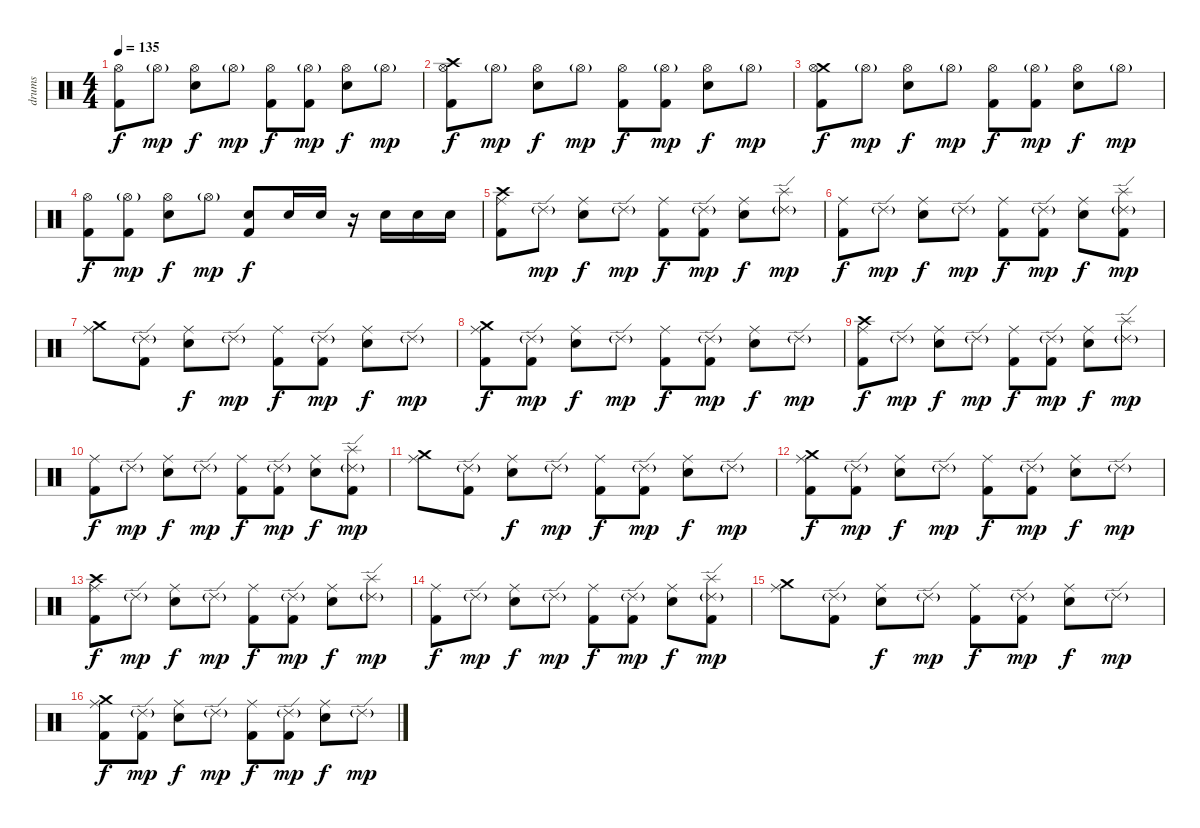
\track ("drums" "drums") {instrument percussion}
\staff {score}
\articulation defaults
\ts (4 4)
\tempo 135
\clef neutral
\ks c
("Hi-Hat (open)" "Kick (hit) 2").8{dy f} "Hi-Hat (open)"{g}.8{dy mp} ("Hi-Hat (open)" "Snare (hit) 2").8{dy f} "Hi-Hat (open)"{g}.8{dy mp} ("Hi-Hat (open)" "Kick (hit) 2").8{dy f} ("Hi-Hat (open)"{g} "Kick (hit) 2").8{dy mp} ("Hi-Hat (open)" "Snare (hit) 2").8{dy f} "Hi-Hat (open)"{g}.8{dy mp} |
("Crash high (hit)" "Hi-Hat (open)" "Kick (hit) 2").8{dy f} "Hi-Hat (open)"{g}.8{dy mp} ("Hi-Hat (open)" "Snare (hit) 2").8{dy f} "Hi-Hat (open)"{g}.8{dy mp} ("Hi-Hat (open)" "Kick (hit) 2").8{dy f} ("Hi-Hat (open)"{g} "Kick (hit) 2").8{dy mp} ("Hi-Hat (open)" "Snare (hit) 2").8{dy f} "Hi-Hat (open)"{g}.8{dy mp} |
("Crash medium (hit)" "Hi-Hat (open)" "Kick (hit) 2").8{dy f} "Hi-Hat (open)"{g}.8{dy mp} ("Hi-Hat (open)" "Snare (hit) 2").8{dy f} "Hi-Hat (open)"{g}.8{dy mp} ("Hi-Hat (open)" "Kick (hit) 2").8{dy f} ("Hi-Hat (open)"{g} "Kick (hit) 2").8{dy mp} ("Hi-Hat (open)" "Snare (hit) 2").8{dy f} "Hi-Hat (open)"{g}.8{dy mp} |
("Hi-Hat (open)" "Kick (hit) 2").8{dy f} ("Hi-Hat (open)"{g} "Kick (hit) 2").8{dy mp} ("Hi-Hat (open)" "Snare (hit) 2").8{dy f} "Hi-Hat (open)"{g}.8{dy mp} ("Snare (hit) 2" "Kick (hit) 2").8{dy f} "Snare (hit) 2".16 "Snare (hit) 2".16 r.16 "Snare (hit) 2".16 "Snare (hit) 2".16 "Snare (hit) 2".16 |
("Crash high (hit)" "Ride (middle)" "Kick (hit) 2").8 "Ride (edge) 2"{g}.8{dy mp} ("Ride (middle)" "Snare (hit) 2").8{dy f} "Ride (edge) 2"{g}.8{dy mp} ("Ride (middle)" "Kick (hit) 2").8{dy f} ("Ride (edge) 2"{g} "Kick (hit) 2").8{dy mp} ("Ride (middle)" "Snare (hit) 2").8{dy f} ("Splash (hit)" "Ride (edge) 2"{g}).8{dy mp} |
("Ride (middle)" "Kick (hit) 2").8{dy f} "Ride (edge) 2"{g}.8{dy mp} ("Ride (middle)" "Snare (hit) 2").8{dy f} "Ride (edge) 2"{g}.8{dy mp} ("Ride (middle)" "Kick (hit) 2").8{dy f} ("Ride (edge) 2"{g} "Kick (hit) 2").8{dy mp} ("Ride (middle)" "Snare (hit) 2").8{dy f} ("Splash (hit)" "Ride (edge) 2"{g} "Kick (hit) 2").8{dy mp} |
("Crash medium (hit)" "Ride (middle)").8 ("Ride (edge) 2"{g} "Kick (hit) 2").8 ("Ride (middle)" "Snare (hit) 2").8{dy f} "Ride (edge) 2"{g}.8{dy mp} ("Ride (middle)" "Kick (hit) 2").8{dy f} ("Ride (edge) 2"{g} "Kick (hit) 2").8{dy mp} ("Ride (middle)" "Snare (hit) 2").8{dy f} "Ride (edge) 2"{g}.8{dy mp} |
("Crash medium (hit)" "Ride (middle)" "Kick (hit) 2").8{dy f} ("Ride (edge) 2"{g} "Kick (hit) 2").8{dy mp} ("Ride (middle)" "Snare (hit) 2").8{dy f} "Ride (edge) 2"{g}.8{dy mp} ("Ride (middle)" "Kick (hit) 2").8{dy f} ("Ride (edge) 2"{g} "Kick (hit) 2").8{dy mp} ("Ride (middle)" "Snare (hit) 2").8{dy f} "Ride (edge) 2"{g}.8{dy mp} |
("Crash high (hit)" "Ride (middle)" "Kick (hit) 2").8{dy f} "Ride (edge) 2"{g}.8{dy mp} ("Ride (middle)" "Snare (hit) 2").8{dy f} "Ride (edge) 2"{g}.8{dy mp} ("Ride (middle)" "Kick (hit) 2").8{dy f} ("Ride (edge) 2"{g} "Kick (hit) 2").8{dy mp} ("Ride (middle)" "Snare (hit) 2").8{dy f} ("Splash (hit)" "Ride (edge) 2"{g}).8{dy mp} |
("Ride (middle)" "Kick (hit) 2").8{dy f} "Ride (edge) 2"{g}.8{dy mp} ("Ride (middle)" "Snare (hit) 2").8{dy f} "Ride (edge) 2"{g}.8{dy mp} ("Ride (middle)" "Kick (hit) 2").8{dy f} ("Ride (edge) 2"{g} "Kick (hit) 2").8{dy mp} ("Ride (middle)" "Snare (hit) 2").8{dy f} ("Splash (hit)" "Ride (edge) 2"{g} "Kick (hit) 2").8{dy mp} |
("Crash medium (hit)" "Ride (middle)").8 ("Ride (edge) 2"{g} "Kick (hit) 2").8 ("Ride (middle)" "Snare (hit) 2").8{dy f} "Ride (edge) 2"{g}.8{dy mp} ("Ride (middle)" "Kick (hit) 2").8{dy f} ("Ride (edge) 2"{g} "Kick (hit) 2").8{dy mp} ("Ride (middle)" "Snare (hit) 2").8{dy f} "Ride (edge) 2"{g}.8{dy mp} |
("Crash medium (hit)" "Ride (middle)" "Kick (hit) 2").8{dy f} ("Ride (edge) 2"{g} "Kick (hit) 2").8{dy mp} ("Ride (middle)" "Snare (hit) 2").8{dy f} "Ride (edge) 2"{g}.8{dy mp} ("Ride (middle)" "Kick (hit) 2").8{dy f} ("Ride (edge) 2"{g} "Kick (hit) 2").8{dy mp} ("Ride (middle)" "Snare (hit) 2").8{dy f} "Ride (edge) 2"{g}.8{dy mp} |
("Crash high (hit)" "Ride (middle)" "Kick (hit) 2").8{dy f} "Ride (edge) 2"{g}.8{dy mp} ("Ride (middle)" "Snare (hit) 2").8{dy f} "Ride (edge) 2"{g}.8{dy mp} ("Ride (middle)" "Kick (hit) 2").8{dy f} ("Ride (edge) 2"{g} "Kick (hit) 2").8{dy mp} ("Ride (middle)" "Snare (hit) 2").8{dy f} ("Splash (hit)" "Ride (edge) 2"{g}).8{dy mp} |
("Ride (middle)" "Kick (hit) 2").8{dy f} "Ride (edge) 2"{g}.8{dy mp} ("Ride (middle)" "Snare (hit) 2").8{dy f} "Ride (edge) 2"{g}.8{dy mp} ("Ride (middle)" "Kick (hit) 2").8{dy f} ("Ride (edge) 2"{g} "Kick (hit) 2").8{dy mp} ("Ride (middle)" "Snare (hit) 2").8{dy f} ("Splash (hit)" "Ride (edge) 2"{g} "Kick (hit) 2").8{dy mp} |
("Crash medium (hit)" "Ride (middle)").8 ("Ride (edge) 2"{g} "Kick (hit) 2").8 ("Ride (middle)" "Snare (hit) 2").8{dy f} "Ride (edge) 2"{g}.8{dy mp} ("Ride (middle)" "Kick (hit) 2").8{dy f} ("Ride (edge) 2"{g} "Kick (hit) 2").8{dy mp} ("Ride (middle)" "Snare (hit) 2").8{dy f} "Ride (edge) 2"{g}.8{dy mp} |
("Crash medium (hit)" "Ride (middle)" "Kick (hit) 2").8{dy f} ("Ride (edge) 2"{g} "Kick (hit) 2").8{dy mp} ("Ride (middle)" "Snare (hit) 2").8{dy f} "Ride (edge) 2"{g}.8{dy mp} ("Ride (middle)" "Kick (hit) 2").8{dy f} ("Ride (edge) 2"{g} "Kick (hit) 2").8{dy mp} ("Ride (middle)" "Snare (hit) 2").8{dy f} "Ride (edge) 2"{g}.8{dy mp}
